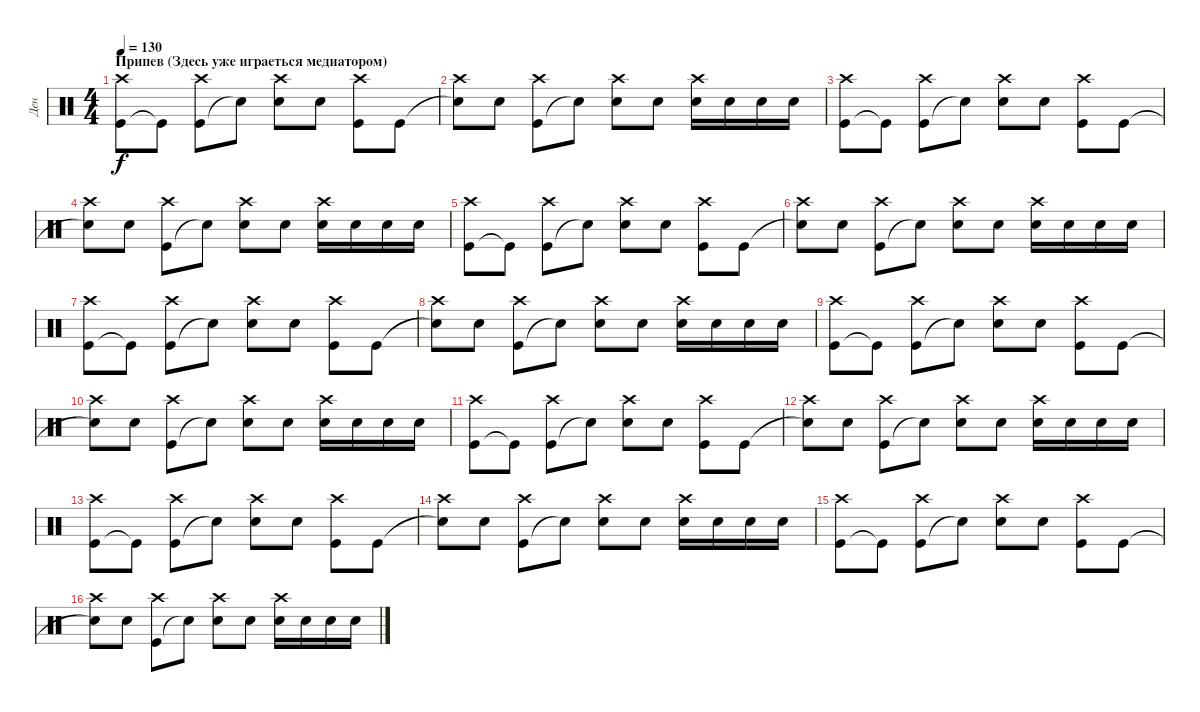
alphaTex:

\track ("Ден" "Ден") {instrument percussion}
\staff {score}
\articulation defaults
\ts (4 4)
\section ("" "Припев (Здесь уже играеться медиатором)")
\tempo 130
\clef neutral
\ks c
("Kick (hit)" "Crash high (hit)").8{dy f} "Kick (hit)"{t}.8 ("Kick (hit)" "Crash high (hit)").8 "Snare (hit)"{t}.8 ("Snare (hit) 2" "Crash high (hit)").8 "Snare (hit) 2".8 ("Kick (hit)" "Crash high (hit)").8 "Kick (hit)".8 |
("Snare (hit)"{t} "Crash high (hit)").8 "Snare (hit) 2".8 ("Kick (hit)" "Crash high (hit)").8 "Snare (hit)"{t}.8 ("Snare (hit) 2" "Crash high (hit)").8 "Snare (hit) 2".8 ("Snare (hit) 2" "Crash high (hit)").16 "Snare (hit) 2".16 "Snare (hit) 2".16 "Snare (hit) 2".16 |
("Kick (hit)" "Crash high (hit)").8 "Kick (hit)"{t}.8 ("Kick (hit)" "Crash high (hit)").8 "Snare (hit)"{t}.8 ("Snare (hit) 2" "Crash high (hit)").8 "Snare (hit) 2".8 ("Kick (hit)" "Crash high (hit)").8 "Kick (hit)".8 |
("Snare (hit)"{t} "Crash high (hit)").8 "Snare (hit) 2".8 ("Kick (hit)" "Crash high (hit)").8 "Snare (hit)"{t}.8 ("Snare (hit) 2" "Crash high (hit)").8 "Snare (hit) 2".8 ("Snare (hit) 2" "Crash high (hit)").16 "Snare (hit) 2".16 "Snare (hit) 2".16 "Snare (hit) 2".16 |
("Kick (hit)" "Crash high (hit)").8 "Kick (hit)"{t}.8 ("Kick (hit)" "Crash high (hit)").8 "Snare (hit)"{t}.8 ("Snare (hit) 2" "Crash high (hit)").8 "Snare (hit) 2".8 ("Kick (hit)" "Crash high (hit)").8 "Kick (hit)".8 |
("Snare (hit)"{t} "Crash high (hit)").8 "Snare (hit) 2".8 ("Kick (hit)" "Crash high (hit)").8 "Snare (hit)"{t}.8 ("Snare (hit) 2" "Crash high (hit)").8 "Snare (hit) 2".8 ("Snare (hit) 2" "Crash high (hit)").16 "Snare (hit) 2".16 "Snare (hit) 2".16 "Snare (hit) 2".16 |
("Kick (hit)" "Crash high (hit)").8 "Kick (hit)"{t}.8 ("Kick (hit)" "Crash high (hit)").8 "Snare (hit)"{t}.8 ("Snare (hit) 2" "Crash high (hit)").8 "Snare (hit) 2".8 ("Kick (hit)" "Crash high (hit)").8 "Kick (hit)".8 |
("Snare (hit)"{t} "Crash high (hit)").8 "Snare (hit) 2".8 ("Kick (hit)" "Crash high (hit)").8 "Snare (hit)"{t}.8 ("Snare (hit) 2" "Crash high (hit)").8 "Snare (hit) 2".8 ("Snare (hit) 2" "Crash high (hit)").16 "Snare (hit) 2".16 "Snare (hit) 2".16 "Snare (hit) 2".16 |
("Kick (hit)" "Crash high (hit)").8 "Kick (hit)"{t}.8 ("Kick (hit)" "Crash high (hit)").8 "Snare (hit)"{t}.8 ("Snare (hit) 2" "Crash high (hit)").8 "Snare (hit) 2".8 ("Kick (hit)" "Crash high (hit)").8 "Kick (hit)".8 |
("Snare (hit)"{t} "Crash high (hit)").8 "Snare (hit) 2".8 ("Kick (hit)" "Crash high (hit)").8 "Snare (hit)"{t}.8 ("Snare (hit) 2" "Crash high (hit)").8 "Snare (hit) 2".8 ("Snare (hit) 2" "Crash high (hit)").16 "Snare (hit) 2".16 "Snare (hit) 2".16 "Snare (hit) 2".16 |
("Kick (hit)" "Crash high (hit)").8 "Kick (hit)"{t}.8 ("Kick (hit)" "Crash high (hit)").8 "Snare (hit)"{t}.8 ("Snare (hit) 2" "Crash high (hit)").8 "Snare (hit) 2".8 ("Kick (hit)" "Crash high (hit)").8 "Kick (hit)".8 |
("Snare (hit)"{t} "Crash high (hit)").8 "Snare (hit) 2".8 ("Kick (hit)" "Crash high (hit)").8 "Snare (hit)"{t}.8 ("Snare (hit) 2" "Crash high (hit)").8 "Snare (hit) 2".8 ("Snare (hit) 2" "Crash high (hit)").16 "Snare (hit) 2".16 "Snare (hit) 2".16 "Snare (hit) 2".16 |
("Kick (hit)" "Crash high (hit)").8 "Kick (hit)"{t}.8 ("Kick (hit)" "Crash high (hit)").8 "Snare (hit)"{t}.8 ("Snare (hit) 2" "Crash high (hit)").8 "Snare (hit) 2".8 ("Kick (hit)" "Crash high (hit)").8 "Kick (hit)".8 |
("Snare (hit)"{t} "Crash high (hit)").8 "Snare (hit) 2".8 ("Kick (hit)" "Crash high (hit)").8 "Snare (hit)"{t}.8 ("Snare (hit) 2" "Crash high (hit)").8 "Snare (hit) 2".8 ("Snare (hit) 2" "Crash high (hit)").16 "Snare (hit) 2".16 "Snare (hit) 2".16 "Snare (hit) 2".16 |
("Kick (hit)" "Crash high (hit)").8 "Kick (hit)"{t}.8 ("Kick (hit)" "Crash high (hit)").8 "Snare (hit)"{t}.8 ("Snare (hit) 2" "Crash high (hit)").8 "Snare (hit) 2".8 ("Kick (hit)" "Crash high (hit)").8 "Kick (hit)".8 |
("Snare (hit)"{t} "Crash high (hit)").8 "Snare (hit) 2".8 ("Kick (hit)" "Crash high (hit)").8 "Snare (hit)"{t}.8 ("Snare (hit) 2" "Crash high (hit)").8 "Snare (hit) 2".8 ("Snare (hit) 2" "Crash high (hit)").16 "Snare (hit) 2".16 "Snare (hit) 2".16 "Snare (hit) 2".16
